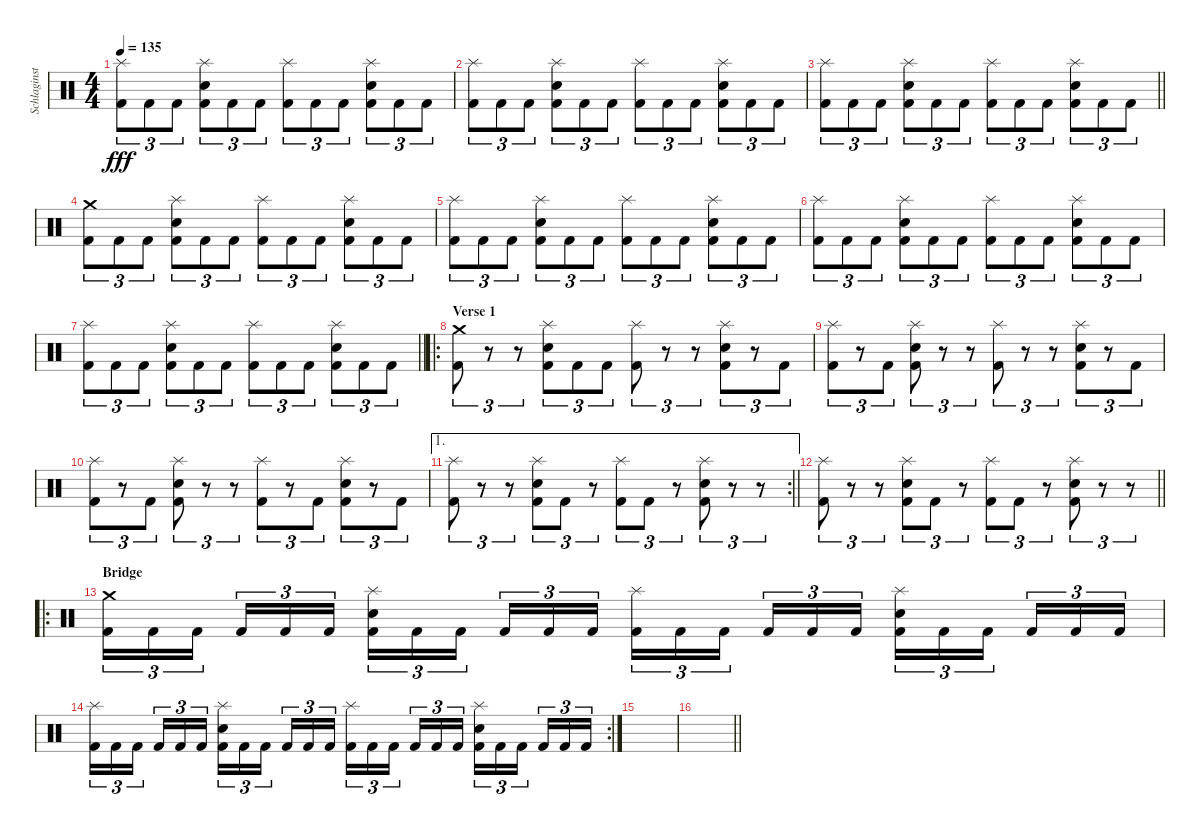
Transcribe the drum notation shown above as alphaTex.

\track ("Schlaginstrumente - Auswahl" "Schlaginst") {instrument percussion}
\staff {score}
\articulation defaults
\ts (4 4)
\tempo 135
\clef neutral
\ks c
("Splash (hit)" "Kick (hit) 2").8{tu (3 2) dy fff} "Kick (hit) 2".8{tu (3 2)} "Kick (hit) 2".8{tu (3 2)} ("Splash (hit)" "Electric Snare (hit)" "Kick (hit) 2").8{tu (3 2)} "Kick (hit) 2".8{tu (3 2)} "Kick (hit) 2".8{tu (3 2)} ("Splash (hit)" "Kick (hit) 2").8{tu (3 2)} "Kick (hit) 2".8{tu (3 2)} "Kick (hit) 2".8{tu (3 2)} ("Splash (hit)" "Electric Snare (hit)" "Kick (hit) 2").8{tu (3 2)} "Kick (hit) 2".8{tu (3 2)} "Kick (hit) 2".8{tu (3 2)} |
("Splash (hit)" "Kick (hit) 2").8{tu (3 2)} "Kick (hit) 2".8{tu (3 2)} "Kick (hit) 2".8{tu (3 2)} ("Splash (hit)" "Electric Snare (hit)" "Kick (hit) 2").8{tu (3 2)} "Kick (hit) 2".8{tu (3 2)} "Kick (hit) 2".8{tu (3 2)} ("Splash (hit)" "Kick (hit) 2").8{tu (3 2)} "Kick (hit) 2".8{tu (3 2)} "Kick (hit) 2".8{tu (3 2)} ("Splash (hit)" "Electric Snare (hit)" "Kick (hit) 2").8{tu (3 2)} "Kick (hit) 2".8{tu (3 2)} "Kick (hit) 2".8{tu (3 2)} |
\barLineRight lightlight
("Splash (hit)" "Kick (hit) 2").8{tu (3 2)} "Kick (hit) 2".8{tu (3 2)} "Kick (hit) 2".8{tu (3 2)} ("Splash (hit)" "Electric Snare (hit)" "Kick (hit) 2").8{tu (3 2)} "Kick (hit) 2".8{tu (3 2)} "Kick (hit) 2".8{tu (3 2)} ("Splash (hit)" "Kick (hit) 2").8{tu (3 2)} "Kick (hit) 2".8{tu (3 2)} "Kick (hit) 2".8{tu (3 2)} ("Splash (hit)" "Electric Snare (hit)" "Kick (hit) 2").8{tu (3 2)} "Kick (hit) 2".8{tu (3 2)} "Kick (hit) 2".8{tu (3 2)} |
("Crash medium (hit)" "Kick (hit) 2").8{tu (3 2)} "Kick (hit) 2".8{tu (3 2)} "Kick (hit) 2".8{tu (3 2)} ("Splash (hit)" "Electric Snare (hit)" "Kick (hit) 2").8{tu (3 2)} "Kick (hit) 2".8{tu (3 2)} "Kick (hit) 2".8{tu (3 2)} ("Splash (hit)" "Kick (hit) 2").8{tu (3 2)} "Kick (hit) 2".8{tu (3 2)} "Kick (hit) 2".8{tu (3 2)} ("Splash (hit)" "Electric Snare (hit)" "Kick (hit) 2").8{tu (3 2)} "Kick (hit) 2".8{tu (3 2)} "Kick (hit) 2".8{tu (3 2)} |
("Splash (hit)" "Kick (hit) 2").8{tu (3 2)} "Kick (hit) 2".8{tu (3 2)} "Kick (hit) 2".8{tu (3 2)} ("Splash (hit)" "Electric Snare (hit)" "Kick (hit) 2").8{tu (3 2)} "Kick (hit) 2".8{tu (3 2)} "Kick (hit) 2".8{tu (3 2)} ("Splash (hit)" "Kick (hit) 2").8{tu (3 2)} "Kick (hit) 2".8{tu (3 2)} "Kick (hit) 2".8{tu (3 2)} ("Splash (hit)" "Electric Snare (hit)" "Kick (hit) 2").8{tu (3 2)} "Kick (hit) 2".8{tu (3 2)} "Kick (hit) 2".8{tu (3 2)} |
("Splash (hit)" "Kick (hit) 2").8{tu (3 2)} "Kick (hit) 2".8{tu (3 2)} "Kick (hit) 2".8{tu (3 2)} ("Splash (hit)" "Electric Snare (hit)" "Kick (hit) 2").8{tu (3 2)} "Kick (hit) 2".8{tu (3 2)} "Kick (hit) 2".8{tu (3 2)} ("Splash (hit)" "Kick (hit) 2").8{tu (3 2)} "Kick (hit) 2".8{tu (3 2)} "Kick (hit) 2".8{tu (3 2)} ("Splash (hit)" "Electric Snare (hit)" "Kick (hit) 2").8{tu (3 2)} "Kick (hit) 2".8{tu (3 2)} "Kick (hit) 2".8{tu (3 2)} |
\barLineRight lightlight
("Splash (hit)" "Kick (hit) 2").8{tu (3 2)} "Kick (hit) 2".8{tu (3 2)} "Kick (hit) 2".8{tu (3 2)} ("Splash (hit)" "Electric Snare (hit)" "Kick (hit) 2").8{tu (3 2)} "Kick (hit) 2".8{tu (3 2)} "Kick (hit) 2".8{tu (3 2)} ("Splash (hit)" "Kick (hit) 2").8{tu (3 2)} "Kick (hit) 2".8{tu (3 2)} "Kick (hit) 2".8{tu (3 2)} ("Splash (hit)" "Electric Snare (hit)" "Kick (hit) 2").8{tu (3 2)} "Kick (hit) 2".8{tu (3 2)} "Kick (hit) 2".8{tu (3 2)} |
\ro
\section ("" "Verse 1")
("Crash medium (hit)" "Kick (hit) 2").8{tu (3 2)} r.8{tu (3 2)} r.8{tu (3 2)} ("Splash (hit)" "Electric Snare (hit)" "Kick (hit) 2").8{tu (3 2)} "Kick (hit) 2".8{tu (3 2)} "Kick (hit) 2".8{tu (3 2)} ("Splash (hit)" "Kick (hit) 2").8{tu (3 2)} r.8{tu (3 2)} r.8{tu (3 2)} ("Splash (hit)" "Electric Snare (hit)" "Kick (hit) 2").8{tu (3 2)} r.8{tu (3 2)} "Kick (hit) 2".8{tu (3 2)} |
("Splash (hit)" "Kick (hit) 2").8{tu (3 2)} r.8{tu (3 2)} "Kick (hit) 2".8{tu (3 2)} ("Splash (hit)" "Electric Snare (hit)" "Kick (hit) 2").8{tu (3 2)} r.8{tu (3 2)} r.8{tu (3 2)} ("Splash (hit)" "Kick (hit) 2").8{tu (3 2)} r.8{tu (3 2)} r.8{tu (3 2)} ("Splash (hit)" "Electric Snare (hit)" "Kick (hit) 2").8{tu (3 2)} r.8{tu (3 2)} "Kick (hit) 2".8{tu (3 2)} |
("Splash (hit)" "Kick (hit) 2").8{tu (3 2)} r.8{tu (3 2)} "Kick (hit) 2".8{tu (3 2)} ("Splash (hit)" "Electric Snare (hit)" "Kick (hit) 2").8{tu (3 2)} r.8{tu (3 2)} r.8{tu (3 2)} ("Splash (hit)" "Kick (hit) 2").8{tu (3 2)} r.8{tu (3 2)} "Kick (hit) 2".8{tu (3 2)} ("Splash (hit)" "Electric Snare (hit)" "Kick (hit) 2").8{tu (3 2)} r.8{tu (3 2)} "Kick (hit) 2".8{tu (3 2)} |
\ae 1
\rc 2
\barLineRight lightlight
("Splash (hit)" "Kick (hit) 2").8{tu (3 2)} r.8{tu (3 2)} r.8{tu (3 2)} ("Splash (hit)" "Electric Snare (hit)" "Kick (hit) 2").8{tu (3 2)} "Kick (hit) 2".8{tu (3 2)} r.8{tu (3 2)} ("Splash (hit)" "Kick (hit) 2").8{tu (3 2)} "Kick (hit) 2".8{tu (3 2)} r.8{tu (3 2)} ("Splash (hit)" "Electric Snare (hit)" "Kick (hit) 2").8{tu (3 2)} r.8{tu (3 2)} r.8{tu (3 2)} |
\barLineRight lightlight
("Splash (hit)" "Kick (hit) 2").8{tu (3 2)} r.8{tu (3 2)} r.8{tu (3 2)} ("Splash (hit)" "Electric Snare (hit)" "Kick (hit) 2").8{tu (3 2)} "Kick (hit) 2".8{tu (3 2)} r.8{tu (3 2)} ("Splash (hit)" "Kick (hit) 2").8{tu (3 2)} "Kick (hit) 2".8{tu (3 2)} r.8{tu (3 2)} ("Splash (hit)" "Electric Snare (hit)" "Kick (hit) 2").8{tu (3 2)} r.8{tu (3 2)} r.8{tu (3 2)} |
\ro
\section ("" "Bridge")
("Kick (hit) 2" "Crash medium (hit)").16{tu (3 2)} "Kick (hit) 2".16{tu (3 2)} "Kick (hit) 2".16{tu (3 2) beam splitsecondary} "Kick (hit) 2".16{tu (3 2)} "Kick (hit) 2".16{tu (3 2)} "Kick (hit) 2".16{tu (3 2)} ("Kick (hit) 2" "Electric Snare (hit)" "Splash (hit)").16{tu (3 2)} "Kick (hit) 2".16{tu (3 2)} "Kick (hit) 2".16{tu (3 2) beam splitsecondary} "Kick (hit) 2".16{tu (3 2)} "Kick (hit) 2".16{tu (3 2)} "Kick (hit) 2".16{tu (3 2)} ("Kick (hit) 2" "Splash (hit)").16{tu (3 2)} "Kick (hit) 2".16{tu (3 2)} "Kick (hit) 2".16{tu (3 2) beam splitsecondary} "Kick (hit) 2".16{tu (3 2)} "Kick (hit) 2".16{tu (3 2)} "Kick (hit) 2".16{tu (3 2)} ("Kick (hit) 2" "Electric Snare (hit)" "Splash (hit)").16{tu (3 2)} "Kick (hit) 2".16{tu (3 2)} "Kick (hit) 2".16{tu (3 2) beam splitsecondary} "Kick (hit) 2".16{tu (3 2)} "Kick (hit) 2".16{tu (3 2)} "Kick (hit) 2".16{tu (3 2)} |
\rc 2
("Kick (hit) 2" "Splash (hit)").16{tu (3 2)} "Kick (hit) 2".16{tu (3 2)} "Kick (hit) 2".16{tu (3 2) beam splitsecondary} "Kick (hit) 2".16{tu (3 2)} "Kick (hit) 2".16{tu (3 2)} "Kick (hit) 2".16{tu (3 2)} ("Kick (hit) 2" "Electric Snare (hit)" "Splash (hit)").16{tu (3 2)} "Kick (hit) 2".16{tu (3 2)} "Kick (hit) 2".16{tu (3 2) beam splitsecondary} "Kick (hit) 2".16{tu (3 2)} "Kick (hit) 2".16{tu (3 2)} "Kick (hit) 2".16{tu (3 2)} ("Kick (hit) 2" "Splash (hit)").16{tu (3 2)} "Kick (hit) 2".16{tu (3 2)} "Kick (hit) 2".16{tu (3 2) beam splitsecondary} "Kick (hit) 2".16{tu (3 2)} "Kick (hit) 2".16{tu (3 2)} "Kick (hit) 2".16{tu (3 2)} ("Kick (hit) 2" "Electric Snare (hit)" "Splash (hit)").16{tu (3 2)} "Kick (hit) 2".16{tu (3 2)} "Kick (hit) 2".16{tu (3 2) beam splitsecondary} "Kick (hit) 2".16{tu (3 2)} "Kick (hit) 2".16{tu (3 2)} "Kick (hit) 2".16{tu (3 2)} |
|
\barLineRight lightlight
